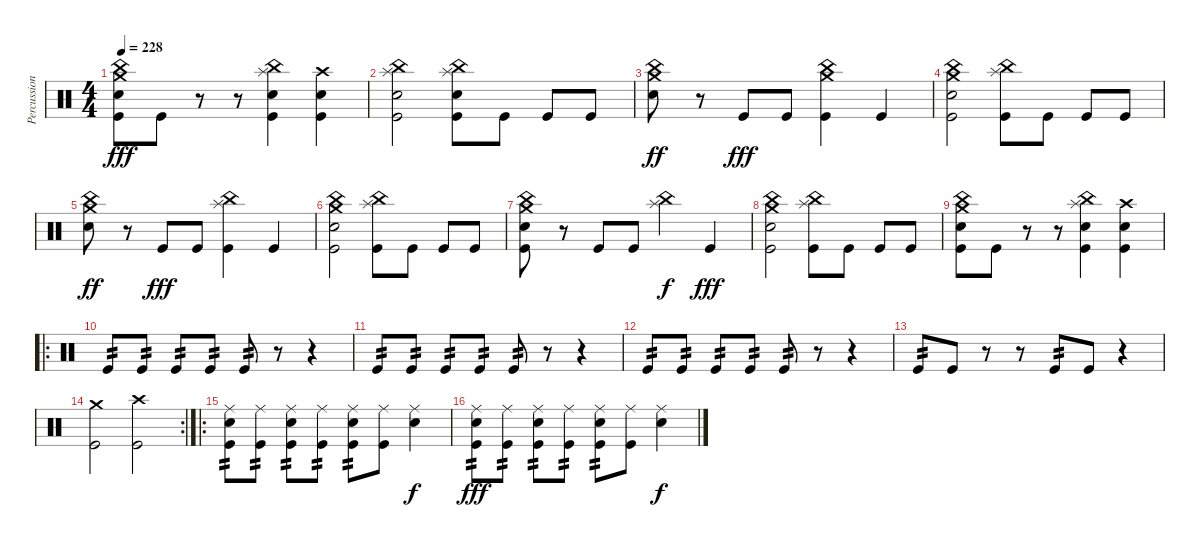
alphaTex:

\track ("Percussion" "Percussion") {instrument percussion}
\staff {score}
\articulation defaults
\ts (4 4)
\tempo 228
\clef neutral
\ks c
("China (hit)" "Crash medium (hit)" "Electric Snare (hit)" "Kick (hit)").8{dy fff} "Kick (hit)".8 r.8 r.8 ("China (hit)" "Splash (hit)" "Electric Snare (hit)" "Kick (hit)").4 ("Crash high (hit)" "Electric Snare (hit)" "Kick (hit)").4 |
("Splash (hit)" "China (hit)" "Electric Snare (hit)" "Kick (hit)").2 ("China (hit)" "Splash (hit)" "Electric Snare (hit)" "Kick (hit)").8 "Kick (hit)".8 "Kick (hit)".8 "Kick (hit)".8 |
("China (hit)" "Crash medium (hit)" "Electric Snare (hit)").8{dy ff} r.8 "Kick (hit)".8{dy fff} "Kick (hit)".8 ("China (hit)" "Crash medium (hit)" "Kick (hit)").4 "Kick (hit)".4 |
("China (hit)" "Crash medium (hit)" "Electric Snare (hit)" "Kick (hit)").2 ("China (hit)" "Splash (hit)" "Kick (hit)").8 "Kick (hit)".8 "Kick (hit)".8 "Kick (hit)".8 |
("China (hit)" "Crash medium (hit)" "Electric Snare (hit)").8{dy ff} r.8 "Kick (hit)".8{dy fff} "Kick (hit)".8 ("China (hit)" "Splash (hit)" "Kick (hit)").4 "Kick (hit)".4 |
("China (hit)" "Crash medium (hit)" "Electric Snare (hit)" "Kick (hit)").2 ("China (hit)" "Splash (hit)" "Kick (hit)").8 "Kick (hit)".8 "Kick (hit)".8 "Kick (hit)".8 |
("China (hit)" "Crash medium (hit)" "Electric Snare (hit)" "Kick (hit)").8 r.8 "Kick (hit)".8 "Kick (hit)".8 ("China (hit)" "Splash (hit)").4{dy f} "Kick (hit)".4{dy fff} |
("China (hit)" "Crash medium (hit)" "Electric Snare (hit)" "Kick (hit)").2 ("China (hit)" "Splash (hit)" "Kick (hit)").8 "Kick (hit)".8 "Kick (hit)".8 "Kick (hit)".8 |
("China (hit)" "Crash medium (hit)" "Electric Snare (hit)" "Kick (hit)").8 "Kick (hit)".8 r.8 r.8 ("China (hit)" "Splash (hit)" "Electric Snare (hit)" "Kick (hit)").4 ("Crash high (hit)" "Electric Snare (hit)" "Kick (hit)").4 |
\ro "Kick (hit)".8{tp 2} "Kick (hit)".8{tp 2} "Kick (hit)".8{tp 2} "Kick (hit)".8{tp 2} "Kick (hit)".8{tp 2}
r.8 r.4 |
"Kick (hit)".8{tp 2} "Kick (hit)".8{tp 2} "Kick (hit)".8{tp 2} "Kick (hit)".8{tp 2} "Kick (hit)".8{tp 2} r.8 r.4 |
"Kick (hit)".8{tp 2} "Kick (hit)".8{tp 2} "Kick (hit)".8{tp 2} "Kick (hit)".8{tp 2} "Kick (hit)".8{tp 2} r.8 r.4 |
"Kick (hit)".8{tp 2} "Kick (hit)".8 r.8 r.8 "Kick (hit)".8{tp 2} "Kick (hit)".8 r.4 |
\rc 2
("Crash medium (hit)" "Kick (hit)").2 ("Crash high (hit)" "Kick (hit)").2 |
\ro
("Ride (middle)" "Snare (hit) 2" "Kick (hit)").8{tp 2} ("Ride (middle)" "Kick (hit)").8{tp 2} ("Ride (middle)" "Snare (hit) 2" "Kick (hit)").8{tp 2} ("Ride (middle)" "Kick (hit)").8{tp 2} ("Ride (middle)" "Snare (hit) 2" "Kick (hit)").8{tp 2} ("Ride (middle)" "Kick (hit)").8 ("Ride (middle)" "Snare (hit) 2").4{dy f} |
("Ride (middle)" "Snare (hit) 2" "Kick (hit)").8{tp 2 dy fff} ("Ride (middle)" "Kick (hit)").8{tp 2} ("Ride (middle)" "Snare (hit) 2" "Kick (hit)").8{tp 2} ("Ride (middle)" "Kick (hit)").8{tp 2} ("Ride (middle)" "Snare (hit) 2" "Kick (hit)").8{tp 2} ("Ride (middle)" "Kick (hit)").8 ("Ride (middle)" "Snare (hit) 2").4{dy f}
